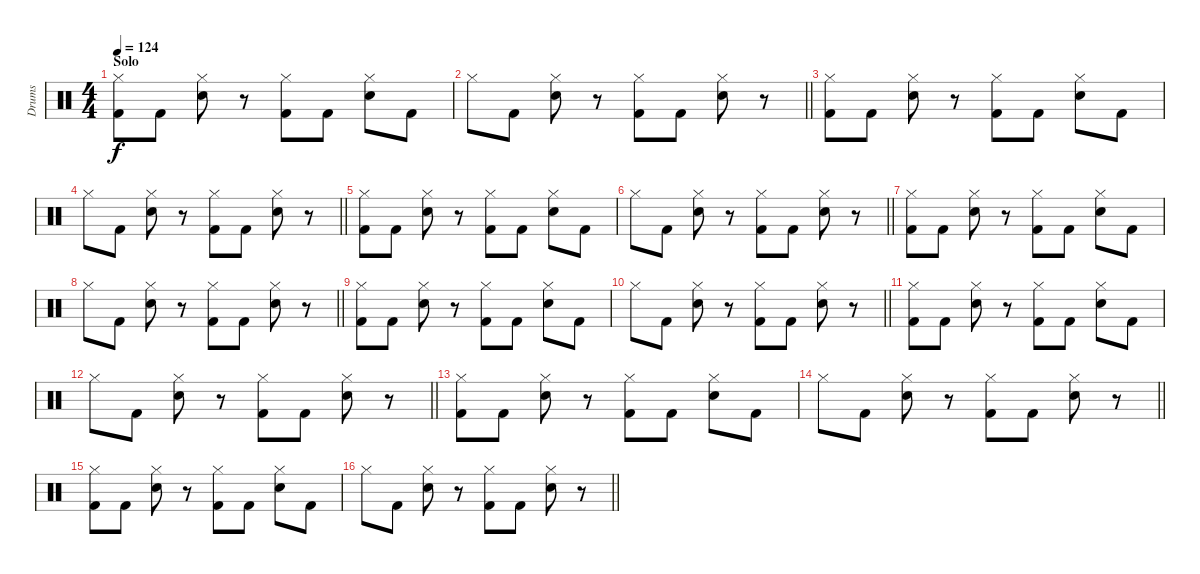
\track ("Drums" "Drums") {instrument percussion}
\staff {score}
\articulation defaults
\ts (4 4)
\section ("" "Solo")
\tempo 124
\clef neutral
\ks c
("Hi-Hat (closed)" "Kick (hit) 2").8{dy f} "Kick (hit) 2".8 ("Hi-Hat (closed)" "Snare (hit) 2").8 r.8 ("Hi-Hat (closed)" "Kick (hit) 2").8 "Kick (hit) 2".8 ("Hi-Hat (closed)" "Snare (hit) 2").8 "Kick (hit) 2".8 |
\barLineRight lightlight "Hi-Hat (closed)".8 "Kick (hit) 2".8
("Hi-Hat (closed)" "Snare (hit) 2").8 r.8 ("Hi-Hat (closed)" "Kick (hit) 2").8 "Kick (hit) 2".8 ("Hi-Hat (closed)" "Snare (hit) 2").8 r.8 |
("Hi-Hat (closed)" "Kick (hit) 2").8 "Kick (hit) 2".8 ("Hi-Hat (closed)" "Snare (hit) 2").8 r.8 ("Hi-Hat (closed)" "Kick (hit) 2").8 "Kick (hit) 2".8 ("Hi-Hat (closed)" "Snare (hit) 2").8 "Kick (hit) 2".8 |
\barLineRight lightlight "Hi-Hat (closed)".8 "Kick (hit) 2".8
("Hi-Hat (closed)" "Snare (hit) 2").8 r.8 ("Hi-Hat (closed)" "Kick (hit) 2").8 "Kick (hit) 2".8 ("Hi-Hat (closed)" "Snare (hit) 2").8 r.8 |
("Hi-Hat (closed)" "Kick (hit) 2").8 "Kick (hit) 2".8 ("Hi-Hat (closed)" "Snare (hit) 2").8 r.8 ("Hi-Hat (closed)" "Kick (hit) 2").8 "Kick (hit) 2".8 ("Hi-Hat (closed)" "Snare (hit) 2").8 "Kick (hit) 2".8 |
\barLineRight lightlight "Hi-Hat (closed)".8 "Kick (hit) 2".8
("Hi-Hat (closed)" "Snare (hit) 2").8 r.8 ("Hi-Hat (closed)" "Kick (hit) 2").8 "Kick (hit) 2".8 ("Hi-Hat (closed)" "Snare (hit) 2").8 r.8 |
("Hi-Hat (closed)" "Kick (hit) 2").8 "Kick (hit) 2".8 ("Hi-Hat (closed)" "Snare (hit) 2").8 r.8 ("Hi-Hat (closed)" "Kick (hit) 2").8 "Kick (hit) 2".8 ("Hi-Hat (closed)" "Snare (hit) 2").8 "Kick (hit) 2".8 |
\barLineRight lightlight "Hi-Hat (closed)".8 "Kick (hit) 2".8
("Hi-Hat (closed)" "Snare (hit) 2").8 r.8 ("Hi-Hat (closed)" "Kick (hit) 2").8 "Kick (hit) 2".8 ("Hi-Hat (closed)" "Snare (hit) 2").8 r.8 |
("Hi-Hat (closed)" "Kick (hit) 2").8 "Kick (hit) 2".8 ("Hi-Hat (closed)" "Snare (hit) 2").8 r.8 ("Hi-Hat (closed)" "Kick (hit) 2").8 "Kick (hit) 2".8 ("Hi-Hat (closed)" "Snare (hit) 2").8 "Kick (hit) 2".8 |
\barLineRight lightlight "Hi-Hat (closed)".8 "Kick (hit) 2".8
("Hi-Hat (closed)" "Snare (hit) 2").8 r.8 ("Hi-Hat (closed)" "Kick (hit) 2").8 "Kick (hit) 2".8 ("Hi-Hat (closed)" "Snare (hit) 2").8 r.8 |
("Hi-Hat (closed)" "Kick (hit) 2").8 "Kick (hit) 2".8 ("Hi-Hat (closed)" "Snare (hit) 2").8 r.8 ("Hi-Hat (closed)" "Kick (hit) 2").8 "Kick (hit) 2".8 ("Hi-Hat (closed)" "Snare (hit) 2").8 "Kick (hit) 2".8 |
\barLineRight lightlight "Hi-Hat (closed)".8 "Kick (hit) 2".8
("Hi-Hat (closed)" "Snare (hit) 2").8 r.8 ("Hi-Hat (closed)" "Kick (hit) 2").8 "Kick (hit) 2".8 ("Hi-Hat (closed)" "Snare (hit) 2").8 r.8 |
("Hi-Hat (closed)" "Kick (hit) 2").8 "Kick (hit) 2".8 ("Hi-Hat (closed)" "Snare (hit) 2").8 r.8 ("Hi-Hat (closed)" "Kick (hit) 2").8 "Kick (hit) 2".8 ("Hi-Hat (closed)" "Snare (hit) 2").8 "Kick (hit) 2".8 |
\barLineRight lightlight "Hi-Hat (closed)".8 "Kick (hit) 2".8
("Hi-Hat (closed)" "Snare (hit) 2").8 r.8 ("Hi-Hat (closed)" "Kick (hit) 2").8 "Kick (hit) 2".8 ("Hi-Hat (closed)" "Snare (hit) 2").8 r.8 |
("Hi-Hat (closed)" "Kick (hit) 2").8 "Kick (hit) 2".8 ("Hi-Hat (closed)" "Snare (hit) 2").8 r.8 ("Hi-Hat (closed)" "Kick (hit) 2").8 "Kick (hit) 2".8 ("Hi-Hat (closed)" "Snare (hit) 2").8 "Kick (hit) 2".8 |
\barLineRight lightlight "Hi-Hat (closed)".8 "Kick (hit) 2".8
("Hi-Hat (closed)" "Snare (hit) 2").8 r.8 ("Hi-Hat (closed)" "Kick (hit) 2").8 "Kick (hit) 2".8 ("Hi-Hat (closed)" "Snare (hit) 2").8 r.8
